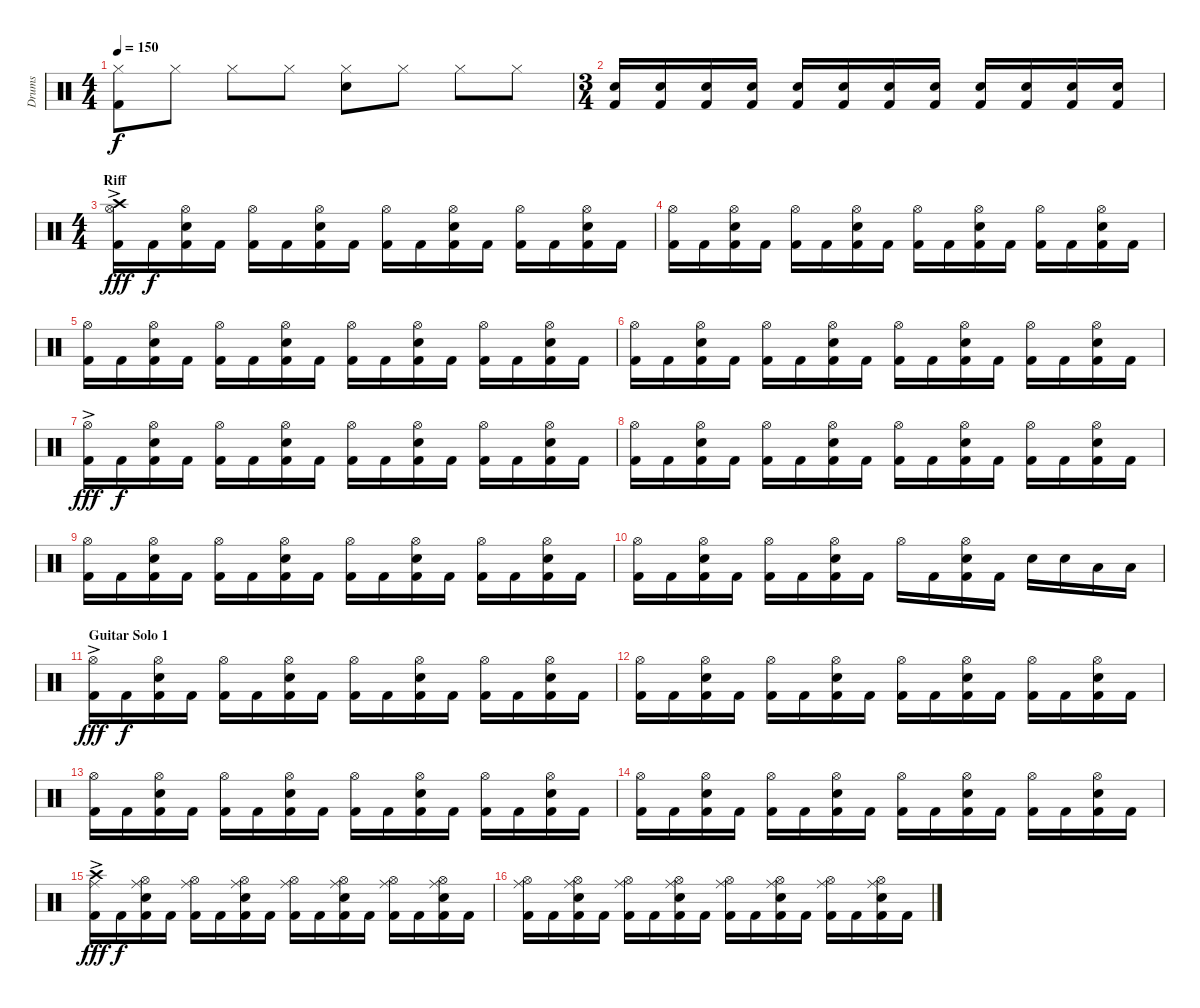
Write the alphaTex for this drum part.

\track ("Drums" "Drums") {instrument percussion}
\staff {score}
\articulation defaults
\ts (4 4)
\tempo 150
\clef neutral
\ks c
("Kick (hit) 2" "Hi-Hat (closed)").8{dy f} "Hi-Hat (closed)".8 "Hi-Hat (closed)".8 "Hi-Hat (closed)".8 ("Electric Snare (hit)" "Hi-Hat (closed)").8 "Hi-Hat (closed)".8 "Hi-Hat (closed)".8 "Hi-Hat (closed)".8 |
\ts (3 4)
("Electric Snare (hit)" "Kick (hit) 2").16 ("Electric Snare (hit)" "Kick (hit) 2").16 ("Electric Snare (hit)" "Kick (hit) 2").16 ("Electric Snare (hit)" "Kick (hit) 2").16 ("Electric Snare (hit)" "Kick (hit) 2").16 ("Electric Snare (hit)" "Kick (hit) 2").16 ("Electric Snare (hit)" "Kick (hit) 2").16 ("Electric Snare (hit)" "Kick (hit) 2").16 ("Electric Snare (hit)" "Kick (hit) 2").16 ("Electric Snare (hit)" "Kick (hit) 2").16 ("Electric Snare (hit)" "Kick (hit) 2").16 ("Electric Snare (hit)" "Kick (hit) 2").16 |
\ts (4 4)
\section ("" "Riff")
\ks aminor
("Kick (hit) 2"{ac} "Crash high (hit)" "Hi-Hat (open)").16{dy fff} "Kick (hit) 2".16{dy f} ("Kick (hit) 2" "Electric Snare (hit)" "Hi-Hat (open)").16 "Kick (hit) 2".16 ("Kick (hit) 2" "Hi-Hat (open)").16 "Kick (hit) 2".16 ("Kick (hit) 2" "Electric Snare (hit)" "Hi-Hat (open)").16 "Kick (hit) 2".16 ("Kick (hit) 2" "Hi-Hat (open)").16 "Kick (hit) 2".16 ("Kick (hit) 2" "Electric Snare (hit)" "Hi-Hat (open)").16 "Kick (hit) 2".16 ("Kick (hit) 2" "Hi-Hat (open)").16 "Kick (hit) 2".16 ("Kick (hit) 2" "Electric Snare (hit)" "Hi-Hat (open)").16 "Kick (hit) 2".16 |
("Kick (hit) 2" "Hi-Hat (open)").16 "Kick (hit) 2".16 ("Kick (hit) 2" "Electric Snare (hit)" "Hi-Hat (open)").16 "Kick (hit) 2".16 ("Kick (hit) 2" "Hi-Hat (open)").16 "Kick (hit) 2".16 ("Kick (hit) 2" "Electric Snare (hit)" "Hi-Hat (open)").16 "Kick (hit) 2".16 ("Kick (hit) 2" "Hi-Hat (open)").16 "Kick (hit) 2".16 ("Kick (hit) 2" "Electric Snare (hit)" "Hi-Hat (open)").16 "Kick (hit) 2".16 ("Kick (hit) 2" "Hi-Hat (open)").16 "Kick (hit) 2".16 ("Kick (hit) 2" "Electric Snare (hit)" "Hi-Hat (open)").16 "Kick (hit) 2".16 |
("Kick (hit) 2" "Hi-Hat (open)").16 "Kick (hit) 2".16 ("Kick (hit) 2" "Electric Snare (hit)" "Hi-Hat (open)").16 "Kick (hit) 2".16 ("Kick (hit) 2" "Hi-Hat (open)").16 "Kick (hit) 2".16 ("Kick (hit) 2" "Electric Snare (hit)" "Hi-Hat (open)").16 "Kick (hit) 2".16 ("Kick (hit) 2" "Hi-Hat (open)").16 "Kick (hit) 2".16 ("Kick (hit) 2" "Electric Snare (hit)" "Hi-Hat (open)").16 "Kick (hit) 2".16 ("Kick (hit) 2" "Hi-Hat (open)").16 "Kick (hit) 2".16 ("Kick (hit) 2" "Electric Snare (hit)" "Hi-Hat (open)").16 "Kick (hit) 2".16 |
("Kick (hit) 2" "Hi-Hat (open)").16 "Kick (hit) 2".16 ("Kick (hit) 2" "Electric Snare (hit)" "Hi-Hat (open)").16 "Kick (hit) 2".16 ("Kick (hit) 2" "Hi-Hat (open)").16 "Kick (hit) 2".16 ("Kick (hit) 2" "Electric Snare (hit)" "Hi-Hat (open)").16 "Kick (hit) 2".16 ("Kick (hit) 2" "Hi-Hat (open)").16 "Kick (hit) 2".16 ("Kick (hit) 2" "Electric Snare (hit)" "Hi-Hat (open)").16 "Kick (hit) 2".16 ("Kick (hit) 2" "Hi-Hat (open)").16 "Kick (hit) 2".16 ("Kick (hit) 2" "Electric Snare (hit)" "Hi-Hat (open)").16 "Kick (hit) 2".16 |
("Kick (hit) 2"{ac} "Hi-Hat (open)").16{dy fff} "Kick (hit) 2".16{dy f} ("Kick (hit) 2" "Electric Snare (hit)" "Hi-Hat (open)").16 "Kick (hit) 2".16 ("Kick (hit) 2" "Hi-Hat (open)").16 "Kick (hit) 2".16 ("Kick (hit) 2" "Electric Snare (hit)" "Hi-Hat (open)").16 "Kick (hit) 2".16 ("Kick (hit) 2" "Hi-Hat (open)").16 "Kick (hit) 2".16 ("Kick (hit) 2" "Electric Snare (hit)" "Hi-Hat (open)").16 "Kick (hit) 2".16 ("Kick (hit) 2" "Hi-Hat (open)").16 "Kick (hit) 2".16 ("Kick (hit) 2" "Electric Snare (hit)" "Hi-Hat (open)").16 "Kick (hit) 2".16 |
("Kick (hit) 2" "Hi-Hat (open)").16 "Kick (hit) 2".16 ("Kick (hit) 2" "Electric Snare (hit)" "Hi-Hat (open)").16 "Kick (hit) 2".16 ("Kick (hit) 2" "Hi-Hat (open)").16 "Kick (hit) 2".16 ("Kick (hit) 2" "Electric Snare (hit)" "Hi-Hat (open)").16 "Kick (hit) 2".16 ("Kick (hit) 2" "Hi-Hat (open)").16 "Kick (hit) 2".16 ("Kick (hit) 2" "Electric Snare (hit)" "Hi-Hat (open)").16 "Kick (hit) 2".16 ("Kick (hit) 2" "Hi-Hat (open)").16 "Kick (hit) 2".16 ("Kick (hit) 2" "Electric Snare (hit)" "Hi-Hat (open)").16 "Kick (hit) 2".16 |
("Kick (hit) 2" "Hi-Hat (open)").16 "Kick (hit) 2".16 ("Kick (hit) 2" "Electric Snare (hit)" "Hi-Hat (open)").16 "Kick (hit) 2".16 ("Kick (hit) 2" "Hi-Hat (open)").16 "Kick (hit) 2".16 ("Kick (hit) 2" "Electric Snare (hit)" "Hi-Hat (open)").16 "Kick (hit) 2".16 ("Kick (hit) 2" "Hi-Hat (open)").16 "Kick (hit) 2".16 ("Kick (hit) 2" "Electric Snare (hit)" "Hi-Hat (open)").16 "Kick (hit) 2".16 ("Kick (hit) 2" "Hi-Hat (open)").16 "Kick (hit) 2".16 ("Kick (hit) 2" "Electric Snare (hit)" "Hi-Hat (open)").16 "Kick (hit) 2".16 |
("Kick (hit) 2" "Hi-Hat (open)").16 "Kick (hit) 2".16 ("Kick (hit) 2" "Electric Snare (hit)" "Hi-Hat (open)").16 "Kick (hit) 2".16 ("Kick (hit) 2" "Hi-Hat (open)").16 "Kick (hit) 2".16 ("Kick (hit) 2" "Electric Snare (hit)" "Hi-Hat (open)").16 "Kick (hit) 2".16 "Hi-Hat (open)".16 "Kick (hit) 2".16 ("Kick (hit) 2" "Electric Snare (hit)" "Hi-Hat (open)").16 "Kick (hit) 2".16 "Electric Snare (hit)".16 "Electric Snare (hit)".16 "Low Tom (hit)".16 "Low Tom (hit)".16 |
\section ("" "Guitar Solo 1 ")
("Kick (hit) 2"{ac} "Hi-Hat (open)").16{dy fff} "Kick (hit) 2".16{dy f} ("Kick (hit) 2" "Electric Snare (hit)" "Hi-Hat (open)").16 "Kick (hit) 2".16 ("Kick (hit) 2" "Hi-Hat (open)").16 "Kick (hit) 2".16 ("Kick (hit) 2" "Electric Snare (hit)" "Hi-Hat (open)").16 "Kick (hit) 2".16 ("Kick (hit) 2" "Hi-Hat (open)").16 "Kick (hit) 2".16 ("Kick (hit) 2" "Electric Snare (hit)" "Hi-Hat (open)").16 "Kick (hit) 2".16 ("Kick (hit) 2" "Hi-Hat (open)").16 "Kick (hit) 2".16 ("Kick (hit) 2" "Electric Snare (hit)" "Hi-Hat (open)").16 "Kick (hit) 2".16 |
("Kick (hit) 2" "Hi-Hat (open)").16 "Kick (hit) 2".16 ("Kick (hit) 2" "Electric Snare (hit)" "Hi-Hat (open)").16 "Kick (hit) 2".16 ("Kick (hit) 2" "Hi-Hat (open)").16 "Kick (hit) 2".16 ("Kick (hit) 2" "Electric Snare (hit)" "Hi-Hat (open)").16 "Kick (hit) 2".16 ("Kick (hit) 2" "Hi-Hat (open)").16 "Kick (hit) 2".16 ("Kick (hit) 2" "Electric Snare (hit)" "Hi-Hat (open)").16 "Kick (hit) 2".16 ("Kick (hit) 2" "Hi-Hat (open)").16 "Kick (hit) 2".16 ("Kick (hit) 2" "Electric Snare (hit)" "Hi-Hat (open)").16 "Kick (hit) 2".16 |
("Kick (hit) 2" "Hi-Hat (open)").16 "Kick (hit) 2".16 ("Kick (hit) 2" "Electric Snare (hit)" "Hi-Hat (open)").16 "Kick (hit) 2".16 ("Kick (hit) 2" "Hi-Hat (open)").16 "Kick (hit) 2".16 ("Kick (hit) 2" "Electric Snare (hit)" "Hi-Hat (open)").16 "Kick (hit) 2".16 ("Kick (hit) 2" "Hi-Hat (open)").16 "Kick (hit) 2".16 ("Kick (hit) 2" "Electric Snare (hit)" "Hi-Hat (open)").16 "Kick (hit) 2".16 ("Kick (hit) 2" "Hi-Hat (open)").16 "Kick (hit) 2".16 ("Kick (hit) 2" "Electric Snare (hit)" "Hi-Hat (open)").16 "Kick (hit) 2".16 |
("Kick (hit) 2" "Hi-Hat (open)").16 "Kick (hit) 2".16 ("Kick (hit) 2" "Electric Snare (hit)" "Hi-Hat (open)").16 "Kick (hit) 2".16 ("Kick (hit) 2" "Hi-Hat (open)").16 "Kick (hit) 2".16 ("Kick (hit) 2" "Electric Snare (hit)" "Hi-Hat (open)").16 "Kick (hit) 2".16 ("Kick (hit) 2" "Hi-Hat (open)").16 "Kick (hit) 2".16 ("Kick (hit) 2" "Electric Snare (hit)" "Hi-Hat (open)").16 "Kick (hit) 2".16 ("Kick (hit) 2" "Hi-Hat (open)").16 "Kick (hit) 2".16 ("Kick (hit) 2" "Electric Snare (hit)" "Hi-Hat (open)").16 "Kick (hit) 2".16 |
("Kick (hit) 2"{ac} "Ride (middle)" "Crash high (hit)").16{dy fff} "Kick (hit) 2".16{dy f} ("Kick (hit) 2" "Ride (middle)" "Electric Snare (hit)" "Hi-Hat (open)").16 "Kick (hit) 2".16 ("Kick (hit) 2" "Ride (middle)" "Hi-Hat (open)").16 "Kick (hit) 2".16 ("Kick (hit) 2" "Ride (middle)" "Electric Snare (hit)" "Hi-Hat (open)").16 "Kick (hit) 2".16 ("Kick (hit) 2" "Ride (middle)" "Hi-Hat (open)").16 "Kick (hit) 2".16 ("Kick (hit) 2" "Ride (middle)" "Electric Snare (hit)" "Hi-Hat (open)").16 "Kick (hit) 2".16 ("Kick (hit) 2" "Ride (middle)" "Hi-Hat (open)").16 "Kick (hit) 2".16 ("Kick (hit) 2" "Ride (middle)" "Electric Snare (hit)" "Hi-Hat (open)").16 "Kick (hit) 2".16 |
("Kick (hit) 2" "Ride (middle)" "Hi-Hat (open)").16 "Kick (hit) 2".16 ("Kick (hit) 2" "Ride (middle)" "Electric Snare (hit)" "Hi-Hat (open)").16 "Kick (hit) 2".16 ("Kick (hit) 2" "Ride (middle)" "Hi-Hat (open)").16 "Kick (hit) 2".16 ("Kick (hit) 2" "Ride (middle)" "Electric Snare (hit)" "Hi-Hat (open)").16 "Kick (hit) 2".16 ("Kick (hit) 2" "Ride (middle)" "Hi-Hat (open)").16 "Kick (hit) 2".16 ("Kick (hit) 2" "Ride (middle)" "Electric Snare (hit)" "Hi-Hat (open)").16 "Kick (hit) 2".16 ("Kick (hit) 2" "Ride (middle)" "Hi-Hat (open)").16 "Kick (hit) 2".16 ("Kick (hit) 2" "Ride (middle)" "Electric Snare (hit)" "Hi-Hat (open)").16 "Kick (hit) 2".16
